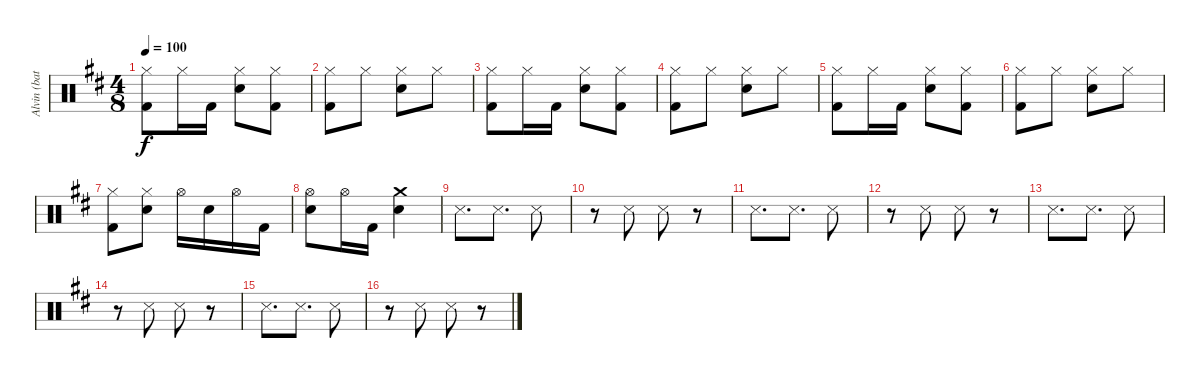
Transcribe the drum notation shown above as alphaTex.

\track ("Alvin (bateria)" "Alvin (bat") {instrument percussion}
\staff {score}
\articulation defaults
\ts (4 8)
\tempo 100
\clef neutral
\ks bminor
("Hi-Hat (closed)" "Kick (hit) 2").8{dy f} "Hi-Hat (closed)".16 "Kick (hit) 2".16 ("Hi-Hat (closed)" "Electric Snare (hit)").8 ("Hi-Hat (closed)" "Kick (hit) 2").8 |
("Hi-Hat (closed)" "Kick (hit) 2").8 "Hi-Hat (closed)".8 ("Hi-Hat (closed)" "Electric Snare (hit)").8 "Hi-Hat (closed)".8 |
("Hi-Hat (closed)" "Kick (hit) 2").8 "Hi-Hat (closed)".16 "Kick (hit) 2".16 ("Hi-Hat (closed)" "Electric Snare (hit)").8 ("Hi-Hat (closed)" "Kick (hit) 2").8 |
("Hi-Hat (closed)" "Kick (hit) 2").8 "Hi-Hat (closed)".8 ("Hi-Hat (closed)" "Electric Snare (hit)").8 "Hi-Hat (closed)".8 |
("Hi-Hat (closed)" "Kick (hit) 2").8 "Hi-Hat (closed)".16 "Kick (hit) 2".16 ("Hi-Hat (closed)" "Electric Snare (hit)").8 ("Hi-Hat (closed)" "Kick (hit) 2").8 |
("Hi-Hat (closed)" "Kick (hit) 2").8 "Hi-Hat (closed)".8 ("Hi-Hat (closed)" "Electric Snare (hit)").8 "Hi-Hat (closed)".8 |
("Hi-Hat (closed)" "Kick (hit) 2").8 ("Hi-Hat (closed)" "Electric Snare (hit)").8 "Hi-Hat (open)".16 "Electric Snare (hit)".16 "Hi-Hat (open)".16 "Kick (hit) 2".16 |
("Hi-Hat (open)" "Electric Snare (hit)").8 "Hi-Hat (open)".16 "Kick (hit) 2".16 ("Electric Snare (hit)" "Crash medium (hit)").4 |
"Snare (side stick) 3".8{d} "Snare (side stick) 3".8{d} "Snare (side stick) 3".8 |
r.8 "Snare (side stick) 3".8 "Snare (side stick) 3".8 r.8 |
"Snare (side stick) 3".8{d} "Snare (side stick) 3".8{d} "Snare (side stick) 3".8 |
r.8 "Snare (side stick) 3".8 "Snare (side stick) 3".8 r.8 |
"Snare (side stick) 3".8{d} "Snare (side stick) 3".8{d} "Snare (side stick) 3".8 |
r.8 "Snare (side stick) 3".8 "Snare (side stick) 3".8 r.8 |
"Snare (side stick) 3".8{d} "Snare (side stick) 3".8{d} "Snare (side stick) 3".8 |
r.8 "Snare (side stick) 3".8 "Snare (side stick) 3".8 r.8
